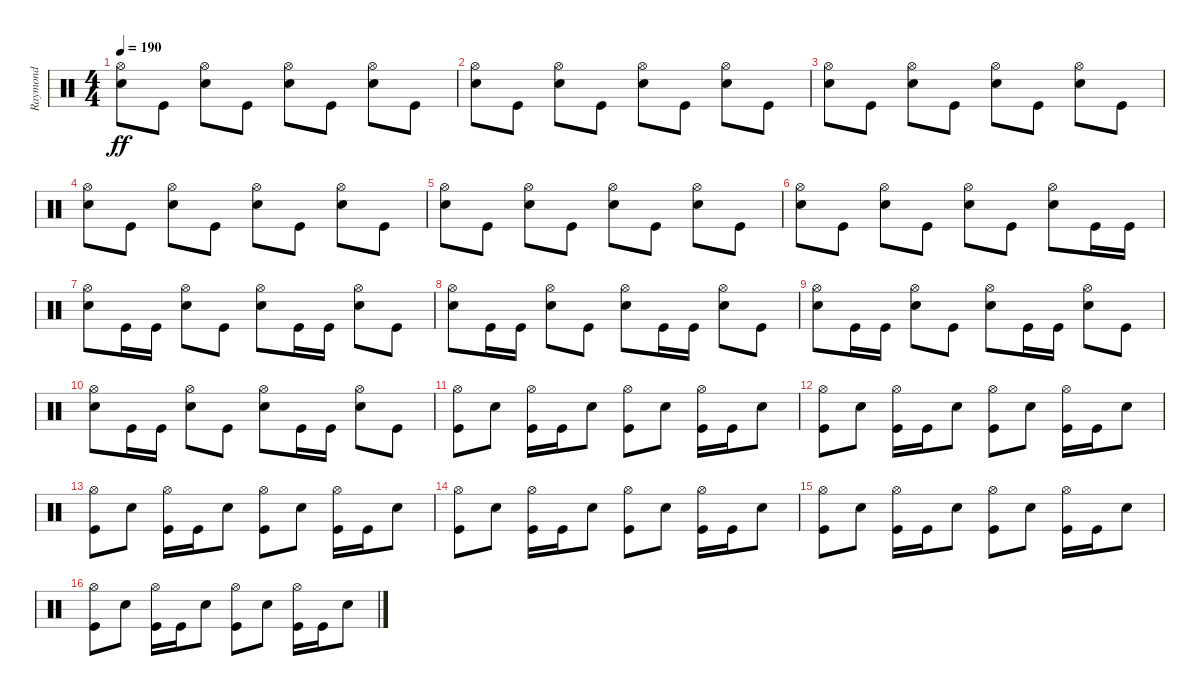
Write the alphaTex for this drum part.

\track ("Raymond" "Raymond") {instrument percussion}
\staff {score}
\articulation defaults
\ts (4 4)
\tempo 190
\clef neutral
\ks c
("Snare (hit) 2" "Hi-Hat (open)").8{dy ff} "Kick (hit)".8 ("Snare (hit) 2" "Hi-Hat (open)").8 "Kick (hit)".8 ("Snare (hit) 2" "Hi-Hat (open)").8 "Kick (hit)".8 ("Snare (hit) 2" "Hi-Hat (open)").8 "Kick (hit)".8 |
("Snare (hit) 2" "Hi-Hat (open)").8 "Kick (hit)".8 ("Snare (hit) 2" "Hi-Hat (open)").8 "Kick (hit)".8 ("Snare (hit) 2" "Hi-Hat (open)").8 "Kick (hit)".8 ("Snare (hit) 2" "Hi-Hat (open)").8 "Kick (hit)".8 |
("Snare (hit) 2" "Hi-Hat (open)").8 "Kick (hit)".8 ("Snare (hit) 2" "Hi-Hat (open)").8 "Kick (hit)".8 ("Snare (hit) 2" "Hi-Hat (open)").8 "Kick (hit)".8 ("Snare (hit) 2" "Hi-Hat (open)").8 "Kick (hit)".8 |
("Snare (hit) 2" "Hi-Hat (open)").8 "Kick (hit)".8 ("Snare (hit) 2" "Hi-Hat (open)").8 "Kick (hit)".8 ("Snare (hit) 2" "Hi-Hat (open)").8 "Kick (hit)".8 ("Snare (hit) 2" "Hi-Hat (open)").8 "Kick (hit)".8 |
("Snare (hit) 2" "Hi-Hat (open)").8 "Kick (hit)".8 ("Snare (hit) 2" "Hi-Hat (open)").8 "Kick (hit)".8 ("Snare (hit) 2" "Hi-Hat (open)").8 "Kick (hit)".8 ("Snare (hit) 2" "Hi-Hat (open)").8 "Kick (hit)".8 |
("Snare (hit) 2" "Hi-Hat (open)").8 "Kick (hit)".8 ("Snare (hit) 2" "Hi-Hat (open)").8 "Kick (hit)".8 ("Snare (hit) 2" "Hi-Hat (open)").8 "Kick (hit)".8 ("Snare (hit) 2" "Hi-Hat (open)").8 "Kick (hit)".16 "Kick (hit)".16 |
("Snare (hit) 2" "Hi-Hat (open)").8 "Kick (hit)".16 "Kick (hit)".16 ("Snare (hit) 2" "Hi-Hat (open)").8 "Kick (hit)".8 ("Snare (hit) 2" "Hi-Hat (open)").8 "Kick (hit)".16 "Kick (hit)".16 ("Snare (hit) 2" "Hi-Hat (open)").8 "Kick (hit)".8 |
("Snare (hit) 2" "Hi-Hat (open)").8 "Kick (hit)".16 "Kick (hit)".16 ("Snare (hit) 2" "Hi-Hat (open)").8 "Kick (hit)".8 ("Snare (hit) 2" "Hi-Hat (open)").8 "Kick (hit)".16 "Kick (hit)".16 ("Snare (hit) 2" "Hi-Hat (open)").8 "Kick (hit)".8 |
("Snare (hit) 2" "Hi-Hat (open)").8 "Kick (hit)".16 "Kick (hit)".16 ("Snare (hit) 2" "Hi-Hat (open)").8 "Kick (hit)".8 ("Snare (hit) 2" "Hi-Hat (open)").8 "Kick (hit)".16 "Kick (hit)".16 ("Snare (hit) 2" "Hi-Hat (open)").8 "Kick (hit)".8 |
("Snare (hit) 2" "Hi-Hat (open)").8 "Kick (hit)".16 "Kick (hit)".16 ("Snare (hit) 2" "Hi-Hat (open)").8 "Kick (hit)".8 ("Snare (hit) 2" "Hi-Hat (open)").8 "Kick (hit)".16 "Kick (hit)".16 ("Snare (hit) 2" "Hi-Hat (open)").8 "Kick (hit)".8 |
("Kick (hit)" "Hi-Hat (open)").8 "Snare (hit) 2".8 ("Kick (hit)" "Hi-Hat (open)").16 "Kick (hit)".16 "Snare (hit) 2".8 ("Kick (hit)" "Hi-Hat (open)").8 "Snare (hit) 2".8 ("Kick (hit)" "Hi-Hat (open)").16 "Kick (hit)".16 "Snare (hit) 2".8 |
("Kick (hit)" "Hi-Hat (open)").8 "Snare (hit) 2".8 ("Kick (hit)" "Hi-Hat (open)").16 "Kick (hit)".16 "Snare (hit) 2".8 ("Kick (hit)" "Hi-Hat (open)").8 "Snare (hit) 2".8 ("Kick (hit)" "Hi-Hat (open)").16 "Kick (hit)".16 "Snare (hit) 2".8 |
("Kick (hit)" "Hi-Hat (open)").8 "Snare (hit) 2".8 ("Kick (hit)" "Hi-Hat (open)").16 "Kick (hit)".16 "Snare (hit) 2".8 ("Kick (hit)" "Hi-Hat (open)").8 "Snare (hit) 2".8 ("Kick (hit)" "Hi-Hat (open)").16 "Kick (hit)".16 "Snare (hit) 2".8 |
("Kick (hit)" "Hi-Hat (open)").8 "Snare (hit) 2".8 ("Kick (hit)" "Hi-Hat (open)").16 "Kick (hit)".16 "Snare (hit) 2".8 ("Kick (hit)" "Hi-Hat (open)").8 "Snare (hit) 2".8 ("Kick (hit)" "Hi-Hat (open)").16 "Kick (hit)".16 "Snare (hit) 2".8 |
("Kick (hit)" "Hi-Hat (open)").8 "Snare (hit) 2".8 ("Kick (hit)" "Hi-Hat (open)").16 "Kick (hit)".16 "Snare (hit) 2".8 ("Kick (hit)" "Hi-Hat (open)").8 "Snare (hit) 2".8 ("Kick (hit)" "Hi-Hat (open)").16 "Kick (hit)".16 "Snare (hit) 2".8 |
("Kick (hit)" "Hi-Hat (open)").8 "Snare (hit) 2".8 ("Kick (hit)" "Hi-Hat (open)").16 "Kick (hit)".16 "Snare (hit) 2".8 ("Kick (hit)" "Hi-Hat (open)").8 "Snare (hit) 2".8 ("Kick (hit)" "Hi-Hat (open)").16 "Kick (hit)".16 "Snare (hit) 2".8
